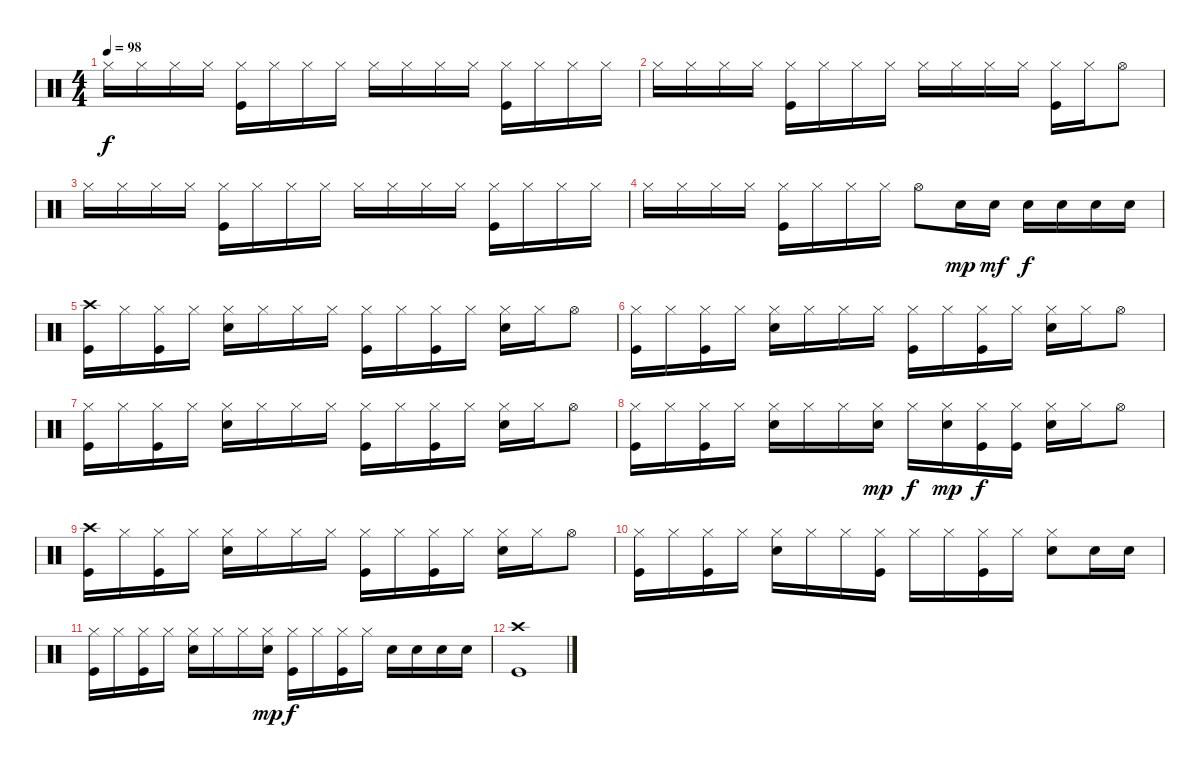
\track "" {instrument percussion}
\staff {score}
\articulation defaults
\ts (4 4)
\tempo 98
\clef neutral
\ks c "Hi-Hat (closed)".16{dy f} "Hi-Hat (closed)".16 "Hi-Hat (closed)".16 "Hi-Hat (closed)".16
("Hi-Hat (closed)" "Kick (hit)").16 "Hi-Hat (closed)".16 "Hi-Hat (closed)".16 "Hi-Hat (closed)".16 "Hi-Hat (closed)".16 "Hi-Hat (closed)".16 "Hi-Hat (closed)".16 "Hi-Hat (closed)".16 ("Hi-Hat (closed)" "Kick (hit)").16 "Hi-Hat (closed)".16 "Hi-Hat (closed)".16 "Hi-Hat (closed)".16 |
"Hi-Hat (closed)".16 "Hi-Hat (closed)".16 "Hi-Hat (closed)".16 "Hi-Hat (closed)".16 ("Hi-Hat (closed)" "Kick (hit)").16 "Hi-Hat (closed)".16 "Hi-Hat (closed)".16 "Hi-Hat (closed)".16 "Hi-Hat (closed)".16 "Hi-Hat (closed)".16 "Hi-Hat (closed)".16 "Hi-Hat (closed)".16 ("Hi-Hat (closed)" "Kick (hit)").16 "Hi-Hat (closed)".16 "Hi-Hat (open)".8 |
"Hi-Hat (closed)".16 "Hi-Hat (closed)".16 "Hi-Hat (closed)".16 "Hi-Hat (closed)".16 ("Hi-Hat (closed)" "Kick (hit)").16 "Hi-Hat (closed)".16 "Hi-Hat (closed)".16 "Hi-Hat (closed)".16 "Hi-Hat (closed)".16 "Hi-Hat (closed)".16 "Hi-Hat (closed)".16 "Hi-Hat (closed)".16 ("Hi-Hat (closed)" "Kick (hit)").16 "Hi-Hat (closed)".16 "Hi-Hat (closed)".16 "Hi-Hat (closed)".16 |
"Hi-Hat (closed)".16 "Hi-Hat (closed)".16 "Hi-Hat (closed)".16 "Hi-Hat (closed)".16 ("Hi-Hat (closed)" "Kick (hit)").16 "Hi-Hat (closed)".16 "Hi-Hat (closed)".16 "Hi-Hat (closed)".16 "Hi-Hat (open)".8 "Electric Snare (hit)".16{dy mp} "Electric Snare (hit)".16{dy mf} "Electric Snare (hit)".16{dy f} "Electric Snare (hit)".16 "Electric Snare (hit)".16 "Electric Snare (hit)".16 |
("Crash high (hit)" "Kick (hit)").16 "Hi-Hat (closed)".16 ("Hi-Hat (closed)" "Kick (hit)").16 "Hi-Hat (closed)".16 ("Hi-Hat (closed)" "Electric Snare (hit)").16 "Hi-Hat (closed)".16 "Hi-Hat (closed)".16 "Hi-Hat (closed)".16 ("Hi-Hat (closed)" "Kick (hit)").16 "Hi-Hat (closed)".16 ("Hi-Hat (closed)" "Kick (hit)").16 "Hi-Hat (closed)".16 ("Hi-Hat (closed)" "Electric Snare (hit)").16 "Hi-Hat (closed)".16 "Hi-Hat (open)".8 |
("Hi-Hat (closed)" "Kick (hit)").16 "Hi-Hat (closed)".16 ("Hi-Hat (closed)" "Kick (hit)").16 "Hi-Hat (closed)".16 ("Hi-Hat (closed)" "Electric Snare (hit)").16 "Hi-Hat (closed)".16 "Hi-Hat (closed)".16 "Hi-Hat (closed)".16 ("Hi-Hat (closed)" "Kick (hit)").16 "Hi-Hat (closed)".16 ("Hi-Hat (closed)" "Kick (hit)").16 "Hi-Hat (closed)".16 ("Hi-Hat (closed)" "Electric Snare (hit)").16 "Hi-Hat (closed)".16 "Hi-Hat (open)".8 |
("Hi-Hat (closed)" "Kick (hit)").16 "Hi-Hat (closed)".16 ("Hi-Hat (closed)" "Kick (hit)").16 "Hi-Hat (closed)".16 ("Hi-Hat (closed)" "Electric Snare (hit)").16 "Hi-Hat (closed)".16 "Hi-Hat (closed)".16 "Hi-Hat (closed)".16 ("Hi-Hat (closed)" "Kick (hit)").16 "Hi-Hat (closed)".16 ("Hi-Hat (closed)" "Kick (hit)").16 "Hi-Hat (closed)".16 ("Hi-Hat (closed)" "Electric Snare (hit)").16 "Hi-Hat (closed)".16 "Hi-Hat (open)".8 |
("Hi-Hat (closed)" "Kick (hit)").16 "Hi-Hat (closed)".16 ("Hi-Hat (closed)" "Kick (hit)").16 "Hi-Hat (closed)".16 ("Hi-Hat (closed)" "Electric Snare (hit)").16 "Hi-Hat (closed)".16 "Hi-Hat (closed)".16 ("Hi-Hat (closed)" "Electric Snare (hit)").16{dy mp} "Hi-Hat (closed)".16{dy f} ("Hi-Hat (closed)" "Electric Snare (hit)").16{dy mp} ("Hi-Hat (closed)" "Kick (hit)").16{dy f} ("Hi-Hat (closed)" "Kick (hit)").16 ("Hi-Hat (closed)" "Electric Snare (hit)").16 "Hi-Hat (closed)".16 "Hi-Hat (open)".8 |
("Crash high (hit)" "Kick (hit)").16 "Hi-Hat (closed)".16 ("Hi-Hat (closed)" "Kick (hit)").16 "Hi-Hat (closed)".16 ("Hi-Hat (closed)" "Electric Snare (hit)").16 "Hi-Hat (closed)".16 "Hi-Hat (closed)".16 "Hi-Hat (closed)".16 ("Hi-Hat (closed)" "Kick (hit)").16 "Hi-Hat (closed)".16 ("Hi-Hat (closed)" "Kick (hit)").16 "Hi-Hat (closed)".16 ("Hi-Hat (closed)" "Electric Snare (hit)").16 "Hi-Hat (closed)".16 "Hi-Hat (open)".8 |
("Hi-Hat (closed)" "Kick (hit)").16 "Hi-Hat (closed)".16 ("Hi-Hat (closed)" "Kick (hit)").16 "Hi-Hat (closed)".16 ("Hi-Hat (closed)" "Electric Snare (hit)").16 "Hi-Hat (closed)".16 "Hi-Hat (closed)".16 ("Hi-Hat (closed)" "Kick (hit)").16 "Hi-Hat (closed)".16 "Hi-Hat (closed)".16 ("Hi-Hat (closed)" "Kick (hit)").16 "Hi-Hat (closed)".16 ("Hi-Hat (closed)" "Electric Snare (hit)").8 "Electric Snare (hit)".16 "Electric Snare (hit)".16 |
("Hi-Hat (closed)" "Kick (hit)").16 "Hi-Hat (closed)".16 ("Hi-Hat (closed)" "Kick (hit)").16 "Hi-Hat (closed)".16 ("Hi-Hat (closed)" "Electric Snare (hit)").16 "Hi-Hat (closed)".16 "Hi-Hat (closed)".16 ("Hi-Hat (closed)" "Electric Snare (hit)").16{dy mp} ("Hi-Hat (closed)" "Kick (hit)").16{dy f} "Hi-Hat (closed)".16 ("Hi-Hat (closed)" "Kick (hit)").16 "Hi-Hat (closed)".16 "Electric Snare (hit)".16 "Electric Snare (hit)".16 "Electric Snare (hit)".16 "Electric Snare (hit)".16 |
("Crash high (hit)" "Kick (hit)").1
